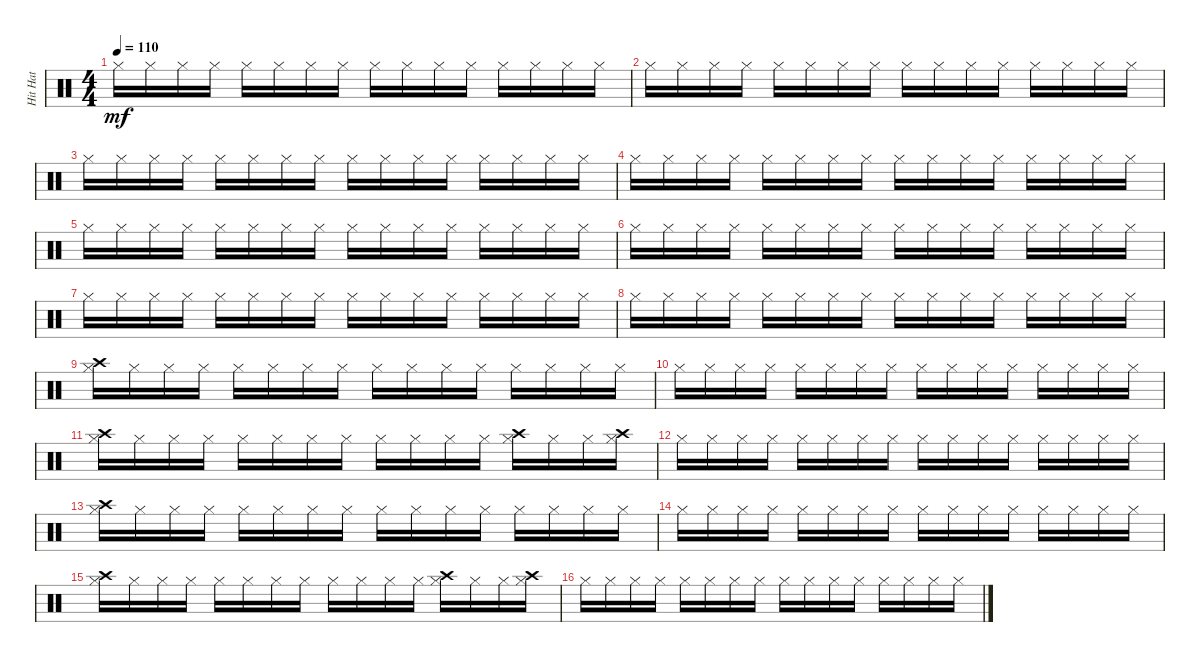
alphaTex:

\track ("Hit Hat" "Hit Hat") {instrument percussion}
\staff {score}
\articulation defaults
\ts (4 4)
\tempo 110
\clef neutral
\ks c "Hi-Hat (closed)".16{dy mf} "Hi-Hat (closed)".16 "Hi-Hat (closed)".16 "Hi-Hat (closed)".16 "Hi-Hat (closed)".16 "Hi-Hat (closed)".16 "Hi-Hat (closed)".16 "Hi-Hat (closed)".16 "Hi-Hat (closed)".16 "Hi-Hat (closed)".16 "Hi-Hat (closed)".16 "Hi-Hat (closed)".16 "Hi-Hat (closed)".16 "Hi-Hat (closed)".16 "Hi-Hat (closed)".16 "Hi-Hat (closed)".16
|
"Hi-Hat (closed)".16 "Hi-Hat (closed)".16 "Hi-Hat (closed)".16 "Hi-Hat (closed)".16 "Hi-Hat (closed)".16 "Hi-Hat (closed)".16 "Hi-Hat (closed)".16 "Hi-Hat (closed)".16 "Hi-Hat (closed)".16 "Hi-Hat (closed)".16 "Hi-Hat (closed)".16 "Hi-Hat (closed)".16 "Hi-Hat (closed)".16 "Hi-Hat (closed)".16 "Hi-Hat (closed)".16 "Hi-Hat (closed)".16 |
"Hi-Hat (closed)".16 "Hi-Hat (closed)".16 "Hi-Hat (closed)".16 "Hi-Hat (closed)".16 "Hi-Hat (closed)".16 "Hi-Hat (closed)".16 "Hi-Hat (closed)".16 "Hi-Hat (closed)".16 "Hi-Hat (closed)".16 "Hi-Hat (closed)".16 "Hi-Hat (closed)".16 "Hi-Hat (closed)".16 "Hi-Hat (closed)".16 "Hi-Hat (closed)".16 "Hi-Hat (closed)".16 "Hi-Hat (closed)".16 |
"Hi-Hat (closed)".16 "Hi-Hat (closed)".16 "Hi-Hat (closed)".16 "Hi-Hat (closed)".16 "Hi-Hat (closed)".16 "Hi-Hat (closed)".16 "Hi-Hat (closed)".16 "Hi-Hat (closed)".16 "Hi-Hat (closed)".16 "Hi-Hat (closed)".16 "Hi-Hat (closed)".16 "Hi-Hat (closed)".16 "Hi-Hat (closed)".16 "Hi-Hat (closed)".16 "Hi-Hat (closed)".16 "Hi-Hat (closed)".16 |
"Hi-Hat (closed)".16 "Hi-Hat (closed)".16 "Hi-Hat (closed)".16 "Hi-Hat (closed)".16 "Hi-Hat (closed)".16 "Hi-Hat (closed)".16 "Hi-Hat (closed)".16 "Hi-Hat (closed)".16 "Hi-Hat (closed)".16 "Hi-Hat (closed)".16 "Hi-Hat (closed)".16 "Hi-Hat (closed)".16 "Hi-Hat (closed)".16 "Hi-Hat (closed)".16 "Hi-Hat (closed)".16 "Hi-Hat (closed)".16 |
"Hi-Hat (closed)".16 "Hi-Hat (closed)".16 "Hi-Hat (closed)".16 "Hi-Hat (closed)".16 "Hi-Hat (closed)".16 "Hi-Hat (closed)".16 "Hi-Hat (closed)".16 "Hi-Hat (closed)".16 "Hi-Hat (closed)".16 "Hi-Hat (closed)".16 "Hi-Hat (closed)".16 "Hi-Hat (closed)".16 "Hi-Hat (closed)".16 "Hi-Hat (closed)".16 "Hi-Hat (closed)".16 "Hi-Hat (closed)".16 |
"Hi-Hat (closed)".16 "Hi-Hat (closed)".16 "Hi-Hat (closed)".16 "Hi-Hat (closed)".16 "Hi-Hat (closed)".16 "Hi-Hat (closed)".16 "Hi-Hat (closed)".16 "Hi-Hat (closed)".16 "Hi-Hat (closed)".16 "Hi-Hat (closed)".16 "Hi-Hat (closed)".16 "Hi-Hat (closed)".16 "Hi-Hat (closed)".16 "Hi-Hat (closed)".16 "Hi-Hat (closed)".16 "Hi-Hat (closed)".16 |
"Hi-Hat (closed)".16 "Hi-Hat (closed)".16 "Hi-Hat (closed)".16 "Hi-Hat (closed)".16 "Hi-Hat (closed)".16 "Hi-Hat (closed)".16 "Hi-Hat (closed)".16 "Hi-Hat (closed)".16 "Hi-Hat (closed)".16 "Hi-Hat (closed)".16 "Hi-Hat (closed)".16 "Hi-Hat (closed)".16 "Hi-Hat (closed)".16 "Hi-Hat (closed)".16 "Hi-Hat (closed)".16 "Hi-Hat (closed)".16 |
("Hi-Hat (closed)" "Crash high (hit)").16 "Hi-Hat (closed)".16 "Hi-Hat (closed)".16 "Hi-Hat (closed)".16 "Hi-Hat (closed)".16 "Hi-Hat (closed)".16 "Hi-Hat (closed)".16 "Hi-Hat (closed)".16 "Hi-Hat (closed)".16 "Hi-Hat (closed)".16 "Hi-Hat (closed)".16 "Hi-Hat (closed)".16 "Hi-Hat (closed)".16 "Hi-Hat (closed)".16 "Hi-Hat (closed)".16 "Hi-Hat (closed)".16 |
"Hi-Hat (closed)".16 "Hi-Hat (closed)".16 "Hi-Hat (closed)".16 "Hi-Hat (closed)".16 "Hi-Hat (closed)".16 "Hi-Hat (closed)".16 "Hi-Hat (closed)".16 "Hi-Hat (closed)".16 "Hi-Hat (closed)".16 "Hi-Hat (closed)".16 "Hi-Hat (closed)".16 "Hi-Hat (closed)".16 "Hi-Hat (closed)".16 "Hi-Hat (closed)".16 "Hi-Hat (closed)".16 "Hi-Hat (closed)".16 |
("Hi-Hat (closed)" "Crash high (hit)").16 "Hi-Hat (closed)".16 "Hi-Hat (closed)".16 "Hi-Hat (closed)".16 "Hi-Hat (closed)".16 "Hi-Hat (closed)".16 "Hi-Hat (closed)".16 "Hi-Hat (closed)".16 "Hi-Hat (closed)".16 "Hi-Hat (closed)".16 "Hi-Hat (closed)".16 "Hi-Hat (closed)".16 ("Hi-Hat (closed)" "Crash high (hit)").16 "Hi-Hat (closed)".16 "Hi-Hat (closed)".16 ("Hi-Hat (closed)" "Crash high (hit)").16 |
"Hi-Hat (closed)".16 "Hi-Hat (closed)".16 "Hi-Hat (closed)".16 "Hi-Hat (closed)".16 "Hi-Hat (closed)".16 "Hi-Hat (closed)".16 "Hi-Hat (closed)".16 "Hi-Hat (closed)".16 "Hi-Hat (closed)".16 "Hi-Hat (closed)".16 "Hi-Hat (closed)".16 "Hi-Hat (closed)".16 "Hi-Hat (closed)".16 "Hi-Hat (closed)".16 "Hi-Hat (closed)".16 "Hi-Hat (closed)".16 |
("Hi-Hat (closed)" "Crash high (hit)").16 "Hi-Hat (closed)".16 "Hi-Hat (closed)".16 "Hi-Hat (closed)".16 "Hi-Hat (closed)".16 "Hi-Hat (closed)".16 "Hi-Hat (closed)".16 "Hi-Hat (closed)".16 "Hi-Hat (closed)".16 "Hi-Hat (closed)".16 "Hi-Hat (closed)".16 "Hi-Hat (closed)".16 "Hi-Hat (closed)".16 "Hi-Hat (closed)".16 "Hi-Hat (closed)".16 "Hi-Hat (closed)".16 |
"Hi-Hat (closed)".16 "Hi-Hat (closed)".16 "Hi-Hat (closed)".16 "Hi-Hat (closed)".16 "Hi-Hat (closed)".16 "Hi-Hat (closed)".16 "Hi-Hat (closed)".16 "Hi-Hat (closed)".16 "Hi-Hat (closed)".16 "Hi-Hat (closed)".16 "Hi-Hat (closed)".16 "Hi-Hat (closed)".16 "Hi-Hat (closed)".16 "Hi-Hat (closed)".16 "Hi-Hat (closed)".16 "Hi-Hat (closed)".16 |
("Hi-Hat (closed)" "Crash high (hit)").16 "Hi-Hat (closed)".16 "Hi-Hat (closed)".16 "Hi-Hat (closed)".16 "Hi-Hat (closed)".16 "Hi-Hat (closed)".16 "Hi-Hat (closed)".16 "Hi-Hat (closed)".16 "Hi-Hat (closed)".16 "Hi-Hat (closed)".16 "Hi-Hat (closed)".16 "Hi-Hat (closed)".16 ("Hi-Hat (closed)" "Crash high (hit)").16 "Hi-Hat (closed)".16 "Hi-Hat (closed)".16 ("Hi-Hat (closed)" "Crash high (hit)").16 |
"Hi-Hat (closed)".16 "Hi-Hat (closed)".16 "Hi-Hat (closed)".16 "Hi-Hat (closed)".16 "Hi-Hat (closed)".16 "Hi-Hat (closed)".16 "Hi-Hat (closed)".16 "Hi-Hat (closed)".16 "Hi-Hat (closed)".16 "Hi-Hat (closed)".16 "Hi-Hat (closed)".16 "Hi-Hat (closed)".16 "Hi-Hat (closed)".16 "Hi-Hat (closed)".16 "Hi-Hat (closed)".16 "Hi-Hat (closed)".16
